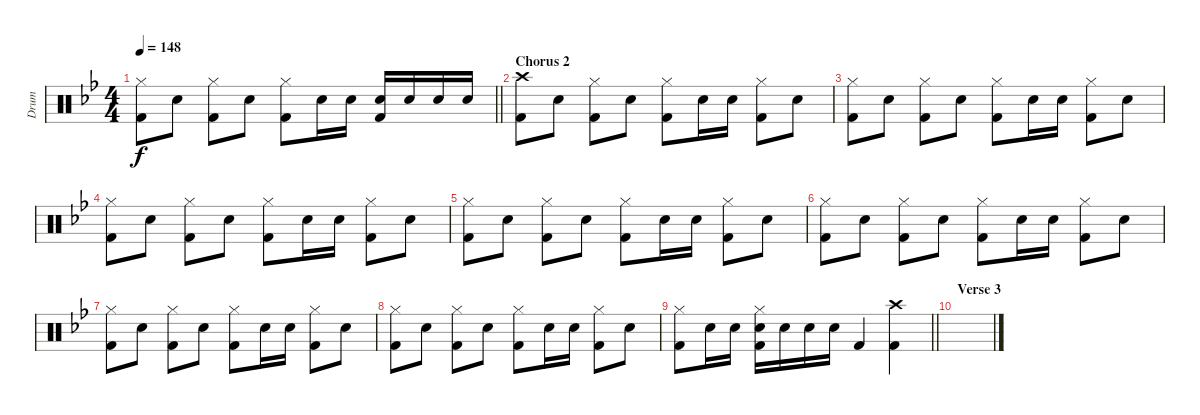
\track ("Drum" "Drum") {instrument percussion}
\staff {score}
\articulation defaults
\ts (4 4)
\tempo 148
\clef neutral
\barLineRight lightlight
\ks bb
("Hi-Hat (closed)" "Kick (hit) 2").8{dy f} "Snare (hit) 2".8 ("Hi-Hat (closed)" "Kick (hit) 2").8 "Snare (hit) 2".8 ("Hi-Hat (closed)" "Kick (hit) 2").8 "Snare (hit) 2".16 "Snare (hit) 2".16 ("Snare (hit) 2" "Kick (hit) 2").16 "Snare (hit) 2".16 "Snare (hit) 2".16 "Snare (hit) 2".16 |
\section ("" "Chorus 2")
("Crash high (hit)" "Kick (hit) 2").8 "Snare (hit) 2".8 ("Hi-Hat (closed)" "Kick (hit) 2").8 "Snare (hit) 2".8 ("Hi-Hat (closed)" "Kick (hit) 2").8 "Snare (hit) 2".16 "Snare (hit) 2".16 ("Hi-Hat (closed)" "Kick (hit) 2").8 "Snare (hit) 2".8 |
("Hi-Hat (closed)" "Kick (hit) 2").8 "Snare (hit) 2".8 ("Hi-Hat (closed)" "Kick (hit) 2").8 "Snare (hit) 2".8 ("Hi-Hat (closed)" "Kick (hit) 2").8 "Snare (hit) 2".16 "Snare (hit) 2".16 ("Hi-Hat (closed)" "Kick (hit) 2").8 "Snare (hit) 2".8 |
("Hi-Hat (closed)" "Kick (hit) 2").8 "Snare (hit) 2".8 ("Hi-Hat (closed)" "Kick (hit) 2").8 "Snare (hit) 2".8 ("Hi-Hat (closed)" "Kick (hit) 2").8 "Snare (hit) 2".16 "Snare (hit) 2".16 ("Hi-Hat (closed)" "Kick (hit) 2").8 "Snare (hit) 2".8 |
("Hi-Hat (closed)" "Kick (hit) 2").8 "Snare (hit) 2".8 ("Hi-Hat (closed)" "Kick (hit) 2").8 "Snare (hit) 2".8 ("Hi-Hat (closed)" "Kick (hit) 2").8 "Snare (hit) 2".16 "Snare (hit) 2".16 ("Hi-Hat (closed)" "Kick (hit) 2").8 "Snare (hit) 2".8 |
("Hi-Hat (closed)" "Kick (hit) 2").8 "Snare (hit) 2".8 ("Hi-Hat (closed)" "Kick (hit) 2").8 "Snare (hit) 2".8 ("Hi-Hat (closed)" "Kick (hit) 2").8 "Snare (hit) 2".16 "Snare (hit) 2".16 ("Hi-Hat (closed)" "Kick (hit) 2").8 "Snare (hit) 2".8 |
("Hi-Hat (closed)" "Kick (hit) 2").8 "Snare (hit) 2".8 ("Hi-Hat (closed)" "Kick (hit) 2").8 "Snare (hit) 2".8 ("Hi-Hat (closed)" "Kick (hit) 2").8 "Snare (hit) 2".16 "Snare (hit) 2".16 ("Hi-Hat (closed)" "Kick (hit) 2").8 "Snare (hit) 2".8 |
("Hi-Hat (closed)" "Kick (hit) 2").8 "Snare (hit) 2".8 ("Hi-Hat (closed)" "Kick (hit) 2").8 "Snare (hit) 2".8 ("Hi-Hat (closed)" "Kick (hit) 2").8 "Snare (hit) 2".16 "Snare (hit) 2".16 ("Hi-Hat (closed)" "Kick (hit) 2").8 "Snare (hit) 2".8 |
\barLineRight lightlight
("Hi-Hat (closed)" "Kick (hit) 2").8 "Snare (hit) 2".16 "Snare (hit) 2".16 ("Hi-Hat (closed)" "Snare (hit) 2" "Kick (hit) 2").16 "Snare (hit) 2".16 "Snare (hit) 2".16 "Snare (hit) 2".16 "Kick (hit) 2".4 ("Crash high (hit)" "Kick (hit) 2").4 |
\section ("" "Verse 3")
